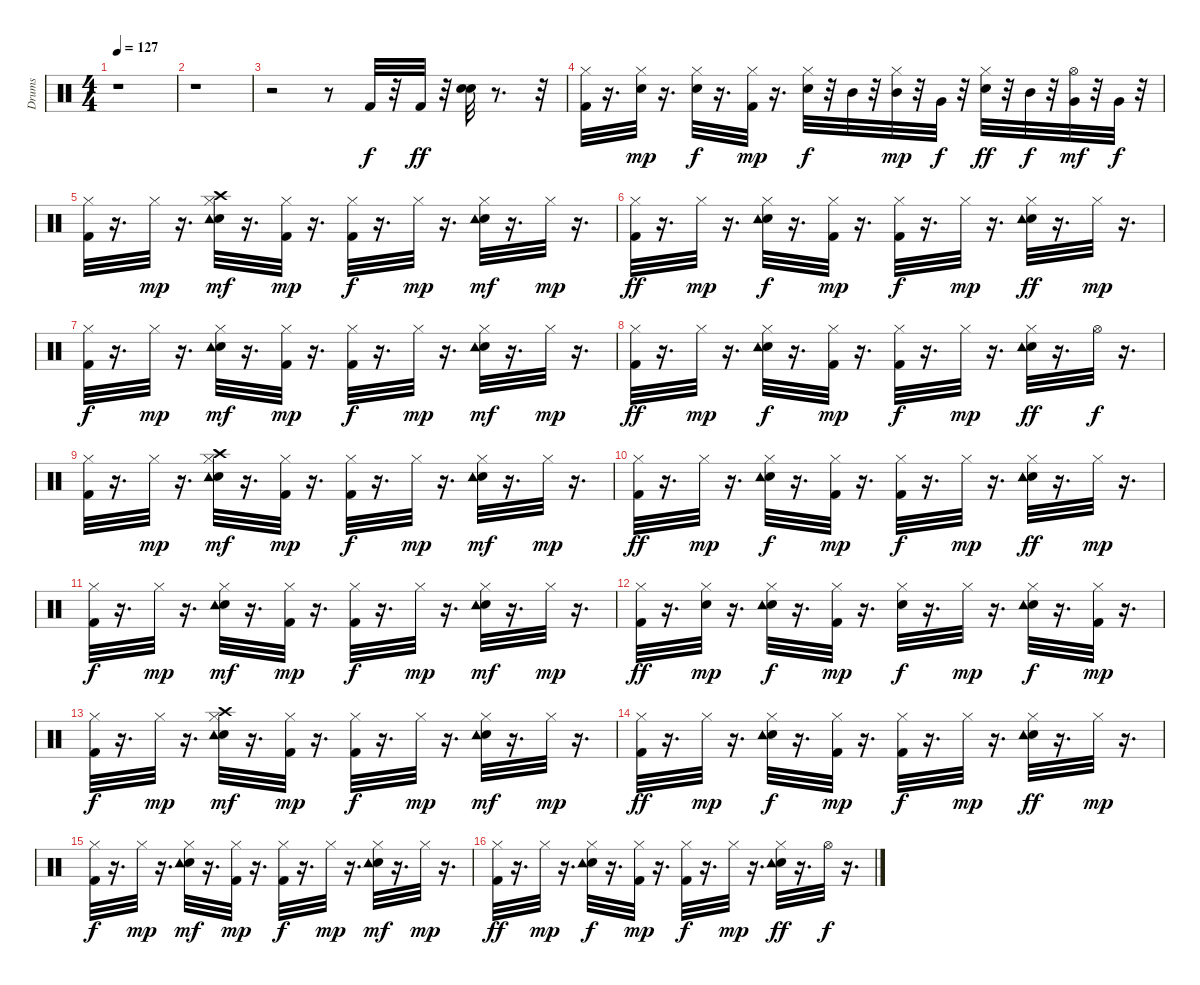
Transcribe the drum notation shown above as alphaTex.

\track ("Drums               " "Drums     ") {instrument percussion}
\staff {score}
\articulation defaults
\ts (4 4)
\tempo 127
\clef neutral
\ks c
r.1{dy mf} |
r.1 |
r.2 r.8 "Kick (hit) 2".32{dy f} r.32 "Kick (hit) 2".32{dy ff} r.32 ("Snare (hit) 2" "Snare (hit) 2").32 r.8{d} r.32 |
("Kick (hit) 2" "Hi-Hat (closed)").32 r.16{d} ("Snare (hit) 2" "Hi-Hat (closed)").32{dy mp} r.16{d} ("Snare (hit) 2" "Hi-Hat (closed)").32{dy f} r.16{d} ("Kick (hit) 2" "Hi-Hat (closed)").32{dy mp} r.16{d} ("Snare (hit) 2" "Hi-Hat (closed)").32{dy f} r.32 "Mid Tom (hit)".32 r.32 ("Mid Tom (hit)" "Hi-Hat (closed)").32{dy mp} r.32 "Very Low Tom (hit)".32{dy f} r.32 ("Snare (hit) 2" "Hi-Hat (closed)").32{dy ff} r.32 "Mid Tom (hit)".32{dy f} r.32 ("Very Low Tom (hit)" "Hi-Hat (open)").32{dy mf} r.32 "Very Low Tom (hit)".32{dy f} r.32 |
("Kick (hit) 2" "Hi-Hat (closed)").32 r.16{d} "Hi-Hat (closed)".32{dy mp} r.16{d} ("Snare (hit) 2" "Crash high (hit)" "Tambourine (hit)" "Hi-Hat (closed)").32{dy mf} r.16{d} ("Kick (hit) 2" "Hi-Hat (closed)").32{dy mp} r.16{d} ("Kick (hit) 2" "Hi-Hat (closed)").32{dy f} r.16{d} "Hi-Hat (closed)".32{dy mp} r.16{d} ("Snare (hit) 2" "Tambourine (hit)" "Hi-Hat (closed)").32{dy mf} r.16{d} "Hi-Hat (closed)".32{dy mp} r.16{d} |
("Kick (hit) 2" "Hi-Hat (closed)").32{dy ff} r.16{d} "Hi-Hat (closed)".32{dy mp} r.16{d} ("Snare (hit) 2" "Tambourine (hit)" "Hi-Hat (closed)").32{dy f} r.16{d} ("Kick (hit) 2" "Hi-Hat (closed)").32{dy mp} r.16{d} ("Hi-Hat (closed)" "Kick (hit) 2").32{dy f} r.16{d} "Hi-Hat (closed)".32{dy mp} r.16{d} ("Snare (hit) 2" "Tambourine (hit)" "Hi-Hat (closed)").32{dy ff} r.16{d} "Hi-Hat (closed)".32{dy mp} r.16{d} |
("Kick (hit) 2" "Hi-Hat (closed)").32{dy f} r.16{d} "Hi-Hat (closed)".32{dy mp} r.16{d} ("Snare (hit) 2" "Tambourine (hit)" "Hi-Hat (closed)").32{dy mf} r.16{d} ("Kick (hit) 2" "Hi-Hat (closed)").32{dy mp} r.16{d} ("Kick (hit) 2" "Hi-Hat (closed)").32{dy f} r.16{d} "Hi-Hat (closed)".32{dy mp} r.16{d} ("Snare (hit) 2" "Hi-Hat (closed)" "Tambourine (hit)").32{dy mf} r.16{d} "Hi-Hat (closed)".32{dy mp} r.16{d} |
("Kick (hit) 2" "Hi-Hat (closed)").32{dy ff} r.16{d} "Hi-Hat (closed)".32{dy mp} r.16{d} ("Snare (hit) 2" "Hi-Hat (closed)" "Tambourine (hit)").32{dy f} r.16{d} ("Kick (hit) 2" "Hi-Hat (closed)").32{dy mp} r.16{d} ("Kick (hit) 2" "Hi-Hat (closed)").32{dy f} r.16{d} "Hi-Hat (closed)".32{dy mp} r.16{d} ("Snare (hit) 2" "Tambourine (hit)" "Hi-Hat (closed)").32{dy ff} r.16{d} "Hi-Hat (open)".32{dy f} r.16{d} |
("Kick (hit) 2" "Hi-Hat (closed)").32 r.16{d} "Hi-Hat (closed)".32{dy mp} r.16{d} ("Hi-Hat (closed)" "Snare (hit) 2" "Crash high (hit)" "Tambourine (hit)").32{dy mf} r.16{d} ("Kick (hit) 2" "Hi-Hat (closed)").32{dy mp} r.16{d} ("Kick (hit) 2" "Hi-Hat (closed)").32{dy f} r.16{d} "Hi-Hat (closed)".32{dy mp} r.16{d} ("Snare (hit) 2" "Tambourine (hit)" "Hi-Hat (closed)").32{dy mf} r.16{d} "Hi-Hat (closed)".32{dy mp} r.16{d} |
("Kick (hit) 2" "Hi-Hat (closed)").32{dy ff} r.16{d} "Hi-Hat (closed)".32{dy mp} r.16{d} ("Snare (hit) 2" "Hi-Hat (closed)" "Tambourine (hit)").32{dy f} r.16{d} ("Kick (hit) 2" "Hi-Hat (closed)").32{dy mp} r.16{d} ("Kick (hit) 2" "Hi-Hat (closed)").32{dy f} r.16{d} "Hi-Hat (closed)".32{dy mp} r.16{d} ("Snare (hit) 2" "Tambourine (hit)" "Hi-Hat (closed)").32{dy ff} r.16{d} "Hi-Hat (closed)".32{dy mp} r.16{d} |
("Kick (hit) 2" "Hi-Hat (closed)").32{dy f} r.16{d} "Hi-Hat (closed)".32{dy mp} r.16{d} ("Snare (hit) 2" "Tambourine (hit)" "Hi-Hat (closed)").32{dy mf} r.16{d} ("Kick (hit) 2" "Hi-Hat (closed)").32{dy mp} r.16{d} ("Kick (hit) 2" "Hi-Hat (closed)").32{dy f} r.16{d} "Hi-Hat (closed)".32{dy mp} r.16{d} ("Snare (hit) 2" "Tambourine (hit)" "Hi-Hat (closed)").32{dy mf} r.16{d} "Hi-Hat (closed)".32{dy mp} r.16{d} |
("Hi-Hat (closed)" "Kick (hit) 2").32{dy ff} r.16{d} ("Snare (hit) 2" "Hi-Hat (closed)").32{dy mp} r.16{d} ("Snare (hit) 2" "Tambourine (hit)" "Hi-Hat (closed)").32{dy f} r.16{d} ("Kick (hit) 2" "Hi-Hat (closed)").32{dy mp} r.16{d} ("Snare (hit) 2" "Hi-Hat (closed)").32{dy f} r.16{d} "Hi-Hat (closed)".32{dy mp} r.16{d} ("Snare (hit) 2" "Tambourine (hit)" "Hi-Hat (closed)").32{dy f} r.16{d} ("Kick (hit) 2" "Hi-Hat (closed)").32{dy mp} r.16{d} |
("Kick (hit) 2" "Hi-Hat (closed)").32{dy f} r.16{d} "Hi-Hat (closed)".32{dy mp} r.16{d} ("Snare (hit) 2" "Hi-Hat (closed)" "Crash high (hit)" "Tambourine (hit)").32{dy mf} r.16{d} ("Hi-Hat (closed)" "Kick (hit) 2").32{dy mp} r.16{d} ("Kick (hit) 2" "Hi-Hat (closed)").32{dy f} r.16{d} "Hi-Hat (closed)".32{dy mp} r.16{d} ("Snare (hit) 2" "Hi-Hat (closed)" "Tambourine (hit)").32{dy mf} r.16{d} "Hi-Hat (closed)".32{dy mp} r.16{d} |
("Kick (hit) 2" "Hi-Hat (closed)").32{dy ff} r.16{d} "Hi-Hat (closed)".32{dy mp} r.16{d} ("Snare (hit) 2" "Tambourine (hit)" "Hi-Hat (closed)").32{dy f} r.16{d} ("Kick (hit) 2" "Hi-Hat (closed)").32{dy mp} r.16{d} ("Kick (hit) 2" "Hi-Hat (closed)").32{dy f} r.16{d} "Hi-Hat (closed)".32{dy mp} r.16{d} ("Hi-Hat (closed)" "Snare (hit) 2" "Tambourine (hit)").32{dy ff} r.16{d} "Hi-Hat (closed)".32{dy mp} r.16{d} |
("Kick (hit) 2" "Hi-Hat (closed)").32{dy f} r.16{d} "Hi-Hat (closed)".32{dy mp} r.16{d} ("Snare (hit) 2" "Tambourine (hit)" "Hi-Hat (closed)").32{dy mf} r.16{d} ("Kick (hit) 2" "Hi-Hat (closed)").32{dy mp} r.16{d} ("Kick (hit) 2" "Hi-Hat (closed)").32{dy f} r.16{d} "Hi-Hat (closed)".32{dy mp} r.16{d} ("Snare (hit) 2" "Hi-Hat (closed)" "Tambourine (hit)").32{dy mf} r.16{d} "Hi-Hat (closed)".32{dy mp} r.16{d} |
("Kick (hit) 2" "Hi-Hat (closed)").32{dy ff} r.16{d} "Hi-Hat (closed)".32{dy mp} r.16{d} ("Snare (hit) 2" "Tambourine (hit)" "Hi-Hat (closed)").32{dy f} r.16{d} ("Kick (hit) 2" "Hi-Hat (closed)").32{dy mp} r.16{d} ("Kick (hit) 2" "Hi-Hat (closed)").32{dy f} r.16{d} "Hi-Hat (closed)".32{dy mp} r.16{d} ("Snare (hit) 2" "Tambourine (hit)" "Hi-Hat (closed)").32{dy ff} r.16{d} "Hi-Hat (open)".32{dy f} r.16{d}
